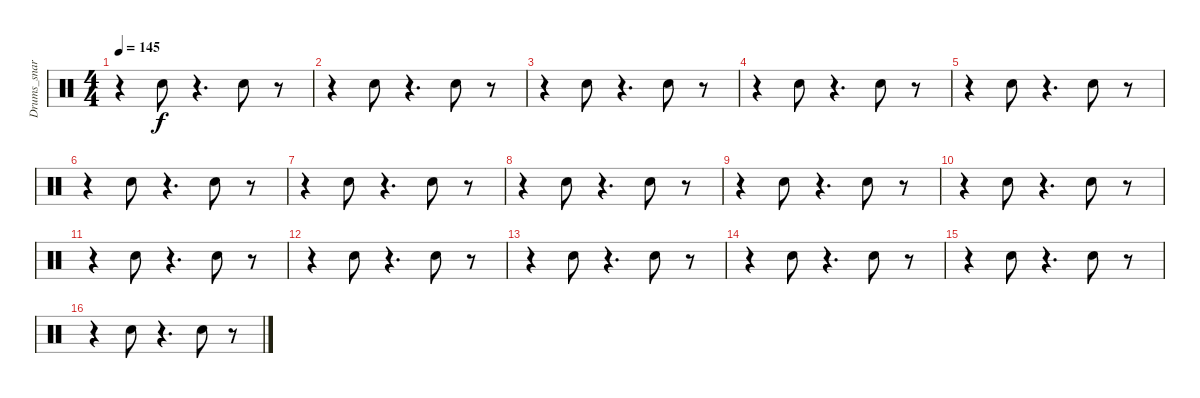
\track ("Drums_snare&tom" "Drums_snar") {instrument percussion}
\staff {score}
\articulation defaults
\ts (4 4)
\tempo 145
\clef neutral
\ks c
r.4{dy f} "Electric Snare (hit)".8 r.4{d} "Electric Snare (hit)".8 r.8 |
r.4 "Electric Snare (hit)".8 r.4{d} "Electric Snare (hit)".8 r.8 |
r.4 "Electric Snare (hit)".8 r.4{d} "Electric Snare (hit)".8 r.8 |
r.4 "Electric Snare (hit)".8 r.4{d} "Electric Snare (hit)".8 r.8 |
r.4 "Electric Snare (hit)".8 r.4{d} "Electric Snare (hit)".8 r.8 |
r.4 "Electric Snare (hit)".8 r.4{d} "Electric Snare (hit)".8 r.8 |
r.4 "Electric Snare (hit)".8 r.4{d} "Electric Snare (hit)".8 r.8 |
r.4 "Electric Snare (hit)".8 r.4{d} "Electric Snare (hit)".8 r.8 |
r.4 "Electric Snare (hit)".8 r.4{d} "Electric Snare (hit)".8 r.8 |
r.4 "Electric Snare (hit)".8 r.4{d} "Electric Snare (hit)".8 r.8 |
r.4 "Electric Snare (hit)".8 r.4{d} "Electric Snare (hit)".8 r.8 |
r.4 "Electric Snare (hit)".8 r.4{d} "Electric Snare (hit)".8 r.8 |
r.4 "Electric Snare (hit)".8 r.4{d} "Electric Snare (hit)".8 r.8 |
r.4 "Electric Snare (hit)".8 r.4{d} "Electric Snare (hit)".8 r.8 |
r.4 "Electric Snare (hit)".8 r.4{d} "Electric Snare (hit)".8 r.8 |
r.4 "Electric Snare (hit)".8 r.4{d} "Electric Snare (hit)".8 r.8
